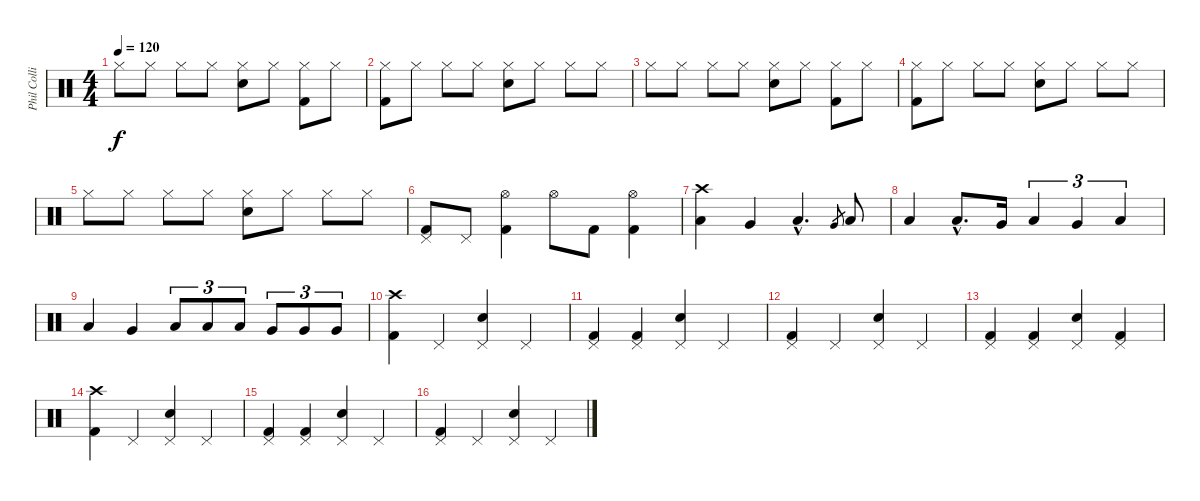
\track ("Phil Collins" "Phil Colli") {instrument percussion}
\staff {score}
\articulation defaults
\ts (4 4)
\tempo 120
\clef neutral
\ks c "Hi-Hat (closed)".8{dy f} "Hi-Hat (closed)".8 "Hi-Hat (closed)".8 "Hi-Hat (closed)".8
("Hi-Hat (closed)" "Snare (hit) 2").8 "Hi-Hat (closed)".8 ("Hi-Hat (closed)" "Kick (hit) 2").8 "Hi-Hat (closed)".8 |
("Hi-Hat (closed)" "Kick (hit) 2").8 "Hi-Hat (closed)".8 "Hi-Hat (closed)".8 "Hi-Hat (closed)".8 ("Hi-Hat (closed)" "Snare (hit) 2").8 "Hi-Hat (closed)".8 "Hi-Hat (closed)".8 "Hi-Hat (closed)".8 |
"Hi-Hat (closed)".8 "Hi-Hat (closed)".8 "Hi-Hat (closed)".8 "Hi-Hat (closed)".8 ("Hi-Hat (closed)" "Snare (hit) 2").8 "Hi-Hat (closed)".8 ("Hi-Hat (closed)" "Kick (hit) 2").8 "Hi-Hat (closed)".8 |
("Hi-Hat (closed)" "Kick (hit) 2").8 "Hi-Hat (closed)".8 "Hi-Hat (closed)".8 "Hi-Hat (closed)".8 ("Hi-Hat (closed)" "Snare (hit) 2").8 "Hi-Hat (closed)".8 "Hi-Hat (closed)".8 "Hi-Hat (closed)".8 |
"Hi-Hat (closed)".8 "Hi-Hat (closed)".8 "Hi-Hat (closed)".8 "Hi-Hat (closed)".8 ("Hi-Hat (closed)" "Snare (hit) 2").8 "Hi-Hat (closed)".8 "Hi-Hat (closed)".8 "Hi-Hat (closed)".8 |
("Pedal Hi-Hat (hit)" "Kick (hit) 2").8 "Pedal Hi-Hat (hit)".8 ("Hi-Hat (open)" "Kick (hit) 2").4 "Hi-Hat (open)".8 "Kick (hit) 2".8 ("Hi-Hat (open)" "Kick (hit) 2").4 |
("Crash high (hit)" "Low Tom (hit)").4 "Very Low Tom (hit)".4 "Low Tom (hit)"{hac}.4{d} "Very Low Tom (hit)"{h}.8{gr} "Low Tom (hit)".8 |
"Low Tom (hit)".4 "Low Tom (hit)"{hac}.8{d} "Very Low Tom (hit)".16 "Low Tom (hit)".4{tu (3 2)} "Very Low Tom (hit)".4{tu (3 2)} "Low Tom (hit)".4{tu (3 2)} |
"Low Tom (hit)".4 "Very Low Tom (hit)".4 "Low Tom (hit)".8{tu (3 2)} "Low Tom (hit)".8{tu (3 2)} "Low Tom (hit)".8{tu (3 2)} "Very Low Tom (hit)".8{tu (3 2)} "Very Low Tom (hit)".8{tu (3 2)} "Very Low Tom (hit)".8{tu (3 2)} |
("Crash high (hit)" "Kick (hit) 2").4 "Pedal Hi-Hat (hit)".4 ("Pedal Hi-Hat (hit)" "Snare (hit) 2").4 "Pedal Hi-Hat (hit)".4 |
("Pedal Hi-Hat (hit)" "Kick (hit) 2").4 ("Pedal Hi-Hat (hit)" "Kick (hit) 2").4 ("Pedal Hi-Hat (hit)" "Snare (hit) 2").4 "Pedal Hi-Hat (hit)".4 |
("Pedal Hi-Hat (hit)" "Kick (hit) 2").4 "Pedal Hi-Hat (hit)".4 ("Pedal Hi-Hat (hit)" "Snare (hit) 2").4 "Pedal Hi-Hat (hit)".4 |
("Pedal Hi-Hat (hit)" "Kick (hit) 2").4 ("Pedal Hi-Hat (hit)" "Kick (hit) 2").4 ("Pedal Hi-Hat (hit)" "Snare (hit) 2").4 ("Pedal Hi-Hat (hit)" "Kick (hit) 2").4 |
("Crash high (hit)" "Kick (hit) 2").4 "Pedal Hi-Hat (hit)".4 ("Pedal Hi-Hat (hit)" "Snare (hit) 2").4 "Pedal Hi-Hat (hit)".4 |
("Pedal Hi-Hat (hit)" "Kick (hit) 2").4 ("Pedal Hi-Hat (hit)" "Kick (hit) 2").4 ("Pedal Hi-Hat (hit)" "Snare (hit) 2").4 "Pedal Hi-Hat (hit)".4 |
("Pedal Hi-Hat (hit)" "Kick (hit) 2").4 "Pedal Hi-Hat (hit)".4 ("Pedal Hi-Hat (hit)" "Snare (hit) 2").4 "Pedal Hi-Hat (hit)".4
